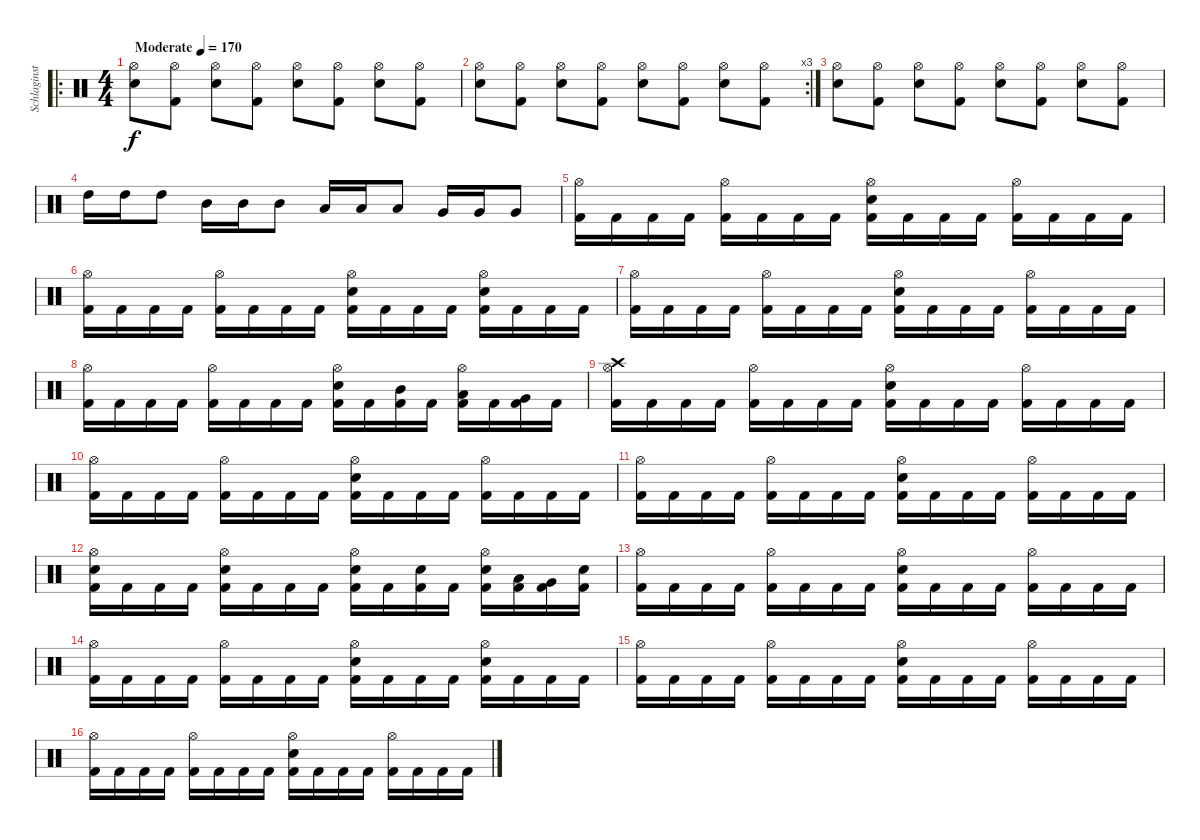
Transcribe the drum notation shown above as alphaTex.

\track ("Schlaginstrumente - Auswahl" "Schlaginst") {instrument percussion}
\staff {score}
\articulation defaults
\ro
\ts (4 4)
\tempo (170 "Moderate")
\clef neutral
\ks c
("Hi-Hat (open)" "Snare (hit) 2").8{dy f} ("Hi-Hat (open)" "Kick (hit) 2").8 ("Hi-Hat (open)" "Snare (hit) 2").8 ("Hi-Hat (open)" "Kick (hit) 2").8 ("Hi-Hat (open)" "Snare (hit) 2").8 ("Hi-Hat (open)" "Kick (hit) 2").8 ("Hi-Hat (open)" "Snare (hit) 2").8 ("Hi-Hat (open)" "Kick (hit) 2").8 |
\rc 3
("Hi-Hat (open)" "Snare (hit) 2").8 ("Hi-Hat (open)" "Kick (hit) 2").8 ("Hi-Hat (open)" "Snare (hit) 2").8 ("Hi-Hat (open)" "Kick (hit) 2").8 ("Hi-Hat (open)" "Snare (hit) 2").8 ("Hi-Hat (open)" "Kick (hit) 2").8 ("Hi-Hat (open)" "Snare (hit) 2").8 ("Hi-Hat (open)" "Kick (hit) 2").8 |
("Hi-Hat (open)" "Snare (hit) 2").8 ("Hi-Hat (open)" "Kick (hit) 2").8 ("Hi-Hat (open)" "Snare (hit) 2").8 ("Hi-Hat (open)" "Kick (hit) 2").8 ("Hi-Hat (open)" "Snare (hit) 2").8 ("Hi-Hat (open)" "Kick (hit) 2").8 ("Hi-Hat (open)" "Snare (hit) 2").8 ("Hi-Hat (open)" "Kick (hit) 2").8 |
"High Tom (hit)".16 "High Tom (hit)".16 "High Tom (hit)".8 "Mid Tom (hit)".16 "Mid Tom (hit)".16 "Mid Tom (hit)".8 "Low Tom (hit)".16 "Low Tom (hit)".16 "Low Tom (hit)".8 "Very Low Tom (hit)".16 "Very Low Tom (hit)".16 "Very Low Tom (hit)".8 |
("Hi-Hat (open)" "Kick (hit) 2").16 "Kick (hit) 2".16 "Kick (hit) 2".16 "Kick (hit) 2".16 ("Hi-Hat (open)" "Kick (hit) 2").16 "Kick (hit) 2".16 "Kick (hit) 2".16 "Kick (hit) 2".16 ("Hi-Hat (open)" "Snare (hit) 2" "Kick (hit) 2").16 "Kick (hit) 2".16 "Kick (hit) 2".16 "Kick (hit) 2".16 ("Hi-Hat (open)" "Kick (hit) 2").16 "Kick (hit) 2".16 "Kick (hit) 2".16 "Kick (hit) 2".16 |
("Hi-Hat (open)" "Kick (hit) 2").16 "Kick (hit) 2".16 "Kick (hit) 2".16 "Kick (hit) 2".16 ("Hi-Hat (open)" "Kick (hit) 2").16 "Kick (hit) 2".16 "Kick (hit) 2".16 "Kick (hit) 2".16 ("Hi-Hat (open)" "Snare (hit) 2" "Kick (hit) 2").16 "Kick (hit) 2".16 "Kick (hit) 2".16 "Kick (hit) 2".16 ("Hi-Hat (open)" "Snare (hit) 2" "Kick (hit) 2").16 "Kick (hit) 2".16 "Kick (hit) 2".16 "Kick (hit) 2".16 |
("Hi-Hat (open)" "Kick (hit) 2").16 "Kick (hit) 2".16 "Kick (hit) 2".16 "Kick (hit) 2".16 ("Hi-Hat (open)" "Kick (hit) 2").16 "Kick (hit) 2".16 "Kick (hit) 2".16 "Kick (hit) 2".16 ("Hi-Hat (open)" "Snare (hit) 2" "Kick (hit) 2").16 "Kick (hit) 2".16 "Kick (hit) 2".16 "Kick (hit) 2".16 ("Hi-Hat (open)" "Kick (hit) 2").16 "Kick (hit) 2".16 "Kick (hit) 2".16 "Kick (hit) 2".16 |
("Hi-Hat (open)" "Kick (hit) 2").16 "Kick (hit) 2".16 "Kick (hit) 2".16 "Kick (hit) 2".16 ("Hi-Hat (open)" "Kick (hit) 2").16 "Kick (hit) 2".16 "Kick (hit) 2".16 "Kick (hit) 2".16 ("Hi-Hat (open)" "Snare (hit) 2" "Kick (hit) 2").16 "Kick (hit) 2".16 ("Mid Tom (hit)" "Kick (hit) 2").16 "Kick (hit) 2".16 ("Hi-Hat (open)" "Low Tom (hit)" "Kick (hit) 2").16 "Kick (hit) 2".16 ("Very Low Tom (hit)" "Kick (hit) 2").16 "Kick (hit) 2".16 |
("Crash high (hit)" "Hi-Hat (open)" "Kick (hit) 2").16 "Kick (hit) 2".16 "Kick (hit) 2".16 "Kick (hit) 2".16 ("Hi-Hat (open)" "Kick (hit) 2").16 "Kick (hit) 2".16 "Kick (hit) 2".16 "Kick (hit) 2".16 ("Hi-Hat (open)" "Snare (hit) 2" "Kick (hit) 2").16 "Kick (hit) 2".16 "Kick (hit) 2".16 "Kick (hit) 2".16 ("Hi-Hat (open)" "Kick (hit) 2").16 "Kick (hit) 2".16 "Kick (hit) 2".16 "Kick (hit) 2".16 |
("Hi-Hat (open)" "Kick (hit) 2").16 "Kick (hit) 2".16 "Kick (hit) 2".16 "Kick (hit) 2".16 ("Hi-Hat (open)" "Kick (hit) 2").16 "Kick (hit) 2".16 "Kick (hit) 2".16 "Kick (hit) 2".16 ("Hi-Hat (open)" "Snare (hit) 2" "Kick (hit) 2").16 "Kick (hit) 2".16 "Kick (hit) 2".16 "Kick (hit) 2".16 ("Hi-Hat (open)" "Kick (hit) 2").16 "Kick (hit) 2".16 "Kick (hit) 2".16 "Kick (hit) 2".16 |
("Hi-Hat (open)" "Kick (hit) 2").16 "Kick (hit) 2".16 "Kick (hit) 2".16 "Kick (hit) 2".16 ("Hi-Hat (open)" "Kick (hit) 2").16 "Kick (hit) 2".16 "Kick (hit) 2".16 "Kick (hit) 2".16 ("Hi-Hat (open)" "Snare (hit) 2" "Kick (hit) 2").16 "Kick (hit) 2".16 "Kick (hit) 2".16 "Kick (hit) 2".16 ("Hi-Hat (open)" "Kick (hit) 2").16 "Kick (hit) 2".16 "Kick (hit) 2".16 "Kick (hit) 2".16 |
("Hi-Hat (open)" "Snare (hit) 2" "Kick (hit) 2").16 "Kick (hit) 2".16 "Kick (hit) 2".16 "Kick (hit) 2".16 ("Hi-Hat (open)" "Snare (hit) 2" "Kick (hit) 2").16 "Kick (hit) 2".16 "Kick (hit) 2".16 "Kick (hit) 2".16 ("Hi-Hat (open)" "Snare (hit) 2" "Kick (hit) 2").16 "Kick (hit) 2".16 ("Snare (hit) 2" "Kick (hit) 2").16 "Kick (hit) 2".16 ("Hi-Hat (open)" "Snare (hit) 2" "Kick (hit) 2").16 ("Low Tom (hit)" "Kick (hit) 2").16 ("Very Low Tom (hit)" "Kick (hit) 2").16 ("Snare (hit) 2" "Kick (hit) 2").16 |
("Hi-Hat (open)" "Kick (hit) 2").16 "Kick (hit) 2".16 "Kick (hit) 2".16 "Kick (hit) 2".16 ("Hi-Hat (open)" "Kick (hit) 2").16 "Kick (hit) 2".16 "Kick (hit) 2".16 "Kick (hit) 2".16 ("Hi-Hat (open)" "Snare (hit) 2" "Kick (hit) 2").16 "Kick (hit) 2".16 "Kick (hit) 2".16 "Kick (hit) 2".16 ("Hi-Hat (open)" "Kick (hit) 2").16 "Kick (hit) 2".16 "Kick (hit) 2".16 "Kick (hit) 2".16 |
("Hi-Hat (open)" "Kick (hit) 2").16 "Kick (hit) 2".16 "Kick (hit) 2".16 "Kick (hit) 2".16 ("Hi-Hat (open)" "Kick (hit) 2").16 "Kick (hit) 2".16 "Kick (hit) 2".16 "Kick (hit) 2".16 ("Hi-Hat (open)" "Snare (hit) 2" "Kick (hit) 2").16 "Kick (hit) 2".16 "Kick (hit) 2".16 "Kick (hit) 2".16 ("Hi-Hat (open)" "Snare (hit) 2" "Kick (hit) 2").16 "Kick (hit) 2".16 "Kick (hit) 2".16 "Kick (hit) 2".16 |
("Hi-Hat (open)" "Kick (hit) 2").16 "Kick (hit) 2".16 "Kick (hit) 2".16 "Kick (hit) 2".16 ("Hi-Hat (open)" "Kick (hit) 2").16 "Kick (hit) 2".16 "Kick (hit) 2".16 "Kick (hit) 2".16 ("Hi-Hat (open)" "Snare (hit) 2" "Kick (hit) 2").16 "Kick (hit) 2".16 "Kick (hit) 2".16 "Kick (hit) 2".16 ("Hi-Hat (open)" "Kick (hit) 2").16 "Kick (hit) 2".16 "Kick (hit) 2".16 "Kick (hit) 2".16 |
("Hi-Hat (open)" "Kick (hit) 2").16 "Kick (hit) 2".16 "Kick (hit) 2".16 "Kick (hit) 2".16 ("Hi-Hat (open)" "Kick (hit) 2").16 "Kick (hit) 2".16 "Kick (hit) 2".16 "Kick (hit) 2".16 ("Hi-Hat (open)" "Snare (hit) 2" "Kick (hit) 2").16 "Kick (hit) 2".16 "Kick (hit) 2".16 "Kick (hit) 2".16 ("Hi-Hat (open)" "Kick (hit) 2").16 "Kick (hit) 2".16 "Kick (hit) 2".16 "Kick (hit) 2".16
